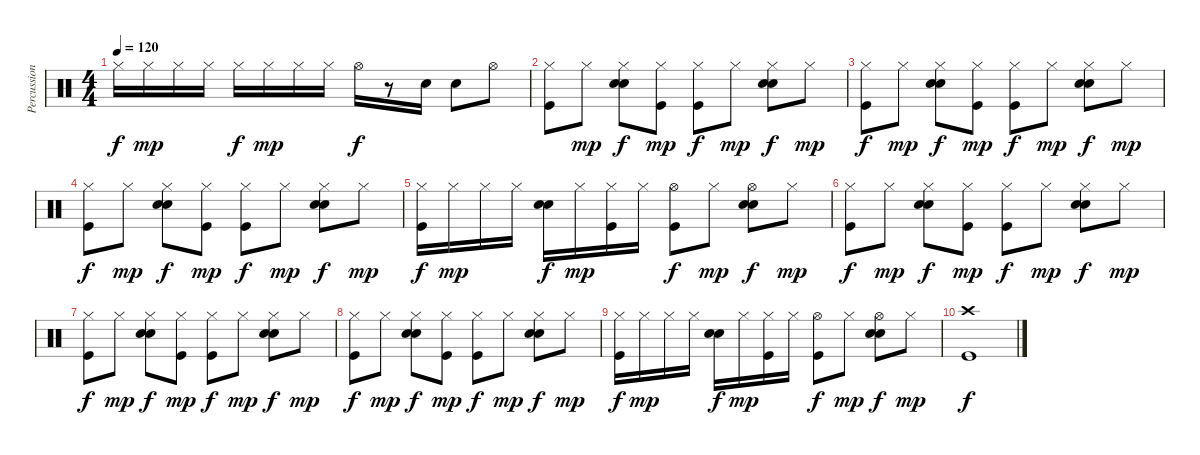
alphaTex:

\track ("Percussions" "Percussion") {instrument percussion}
\staff {score}
\articulation defaults
\ts (4 4)
\tempo 120
\clef neutral
\ks c "Hi-Hat (closed)".16{dy f} "Hi-Hat (closed)".16{dy mp} "Hi-Hat (closed)".16 "Hi-Hat (closed)".16 "Hi-Hat (closed)".16{dy f} "Hi-Hat (closed)".16{dy mp} "Hi-Hat (closed)".16 "Hi-Hat (closed)".16 "Hi-Hat (open)".16{dy f}
r.8 "Snare (hit) 2".16 "Snare (hit) 2".8 "Hi-Hat (open)".8 |
("Hi-Hat (closed)" "Kick (hit)").8 "Hi-Hat (closed)".8{dy mp} ("Hi-Hat (closed)" "Hand Clap (hit)" "Snare (hit) 2").8{dy f} ("Hi-Hat (closed)" "Kick (hit)").8{dy mp} ("Hi-Hat (closed)" "Kick (hit)").8{dy f} "Hi-Hat (closed)".8{dy mp} ("Hi-Hat (closed)" "Hand Clap (hit)" "Snare (hit) 2").8{dy f} "Hi-Hat (closed)".8{dy mp} |
("Hi-Hat (closed)" "Kick (hit)").8{dy f} "Hi-Hat (closed)".8{dy mp} ("Hi-Hat (closed)" "Hand Clap (hit)" "Snare (hit) 2").8{dy f} ("Hi-Hat (closed)" "Kick (hit)").8{dy mp} ("Hi-Hat (closed)" "Kick (hit)").8{dy f} "Hi-Hat (closed)".8{dy mp} ("Hi-Hat (closed)" "Hand Clap (hit)" "Snare (hit) 2").8{dy f} "Hi-Hat (closed)".8{dy mp} |
("Hi-Hat (closed)" "Kick (hit)").8{dy f} "Hi-Hat (closed)".8{dy mp} ("Hi-Hat (closed)" "Hand Clap (hit)" "Snare (hit) 2").8{dy f} ("Hi-Hat (closed)" "Kick (hit)").8{dy mp} ("Hi-Hat (closed)" "Kick (hit)").8{dy f} "Hi-Hat (closed)".8{dy mp} ("Hi-Hat (closed)" "Hand Clap (hit)" "Snare (hit) 2").8{dy f} "Hi-Hat (closed)".8{dy mp} |
("Hi-Hat (closed)" "Kick (hit)").16{dy f} "Hi-Hat (closed)".16{dy mp} "Hi-Hat (closed)".16 "Hi-Hat (closed)".16 ("Hand Clap (hit)" "Snare (hit) 2").16{dy f} "Hi-Hat (closed)".16{dy mp} ("Hi-Hat (closed)" "Kick (hit)").16 "Hi-Hat (closed)".16 ("Hi-Hat (open)" "Kick (hit)").8{dy f} "Hi-Hat (closed)".8{dy mp} ("Hi-Hat (open)" "Hand Clap (hit)" "Snare (hit) 2").8{dy f} "Hi-Hat (closed)".8{dy mp} |
("Hi-Hat (closed)" "Kick (hit)").8{dy f} "Hi-Hat (closed)".8{dy mp} ("Hi-Hat (closed)" "Hand Clap (hit)" "Snare (hit) 2").8{dy f} ("Hi-Hat (closed)" "Kick (hit)").8{dy mp} ("Hi-Hat (closed)" "Kick (hit)").8{dy f} "Hi-Hat (closed)".8{dy mp} ("Hi-Hat (closed)" "Hand Clap (hit)" "Snare (hit) 2").8{dy f} "Hi-Hat (closed)".8{dy mp} |
("Hi-Hat (closed)" "Kick (hit)").8{dy f} "Hi-Hat (closed)".8{dy mp} ("Hi-Hat (closed)" "Hand Clap (hit)" "Snare (hit) 2").8{dy f} ("Hi-Hat (closed)" "Kick (hit)").8{dy mp} ("Hi-Hat (closed)" "Kick (hit)").8{dy f} "Hi-Hat (closed)".8{dy mp} ("Hi-Hat (closed)" "Hand Clap (hit)" "Snare (hit) 2").8{dy f} "Hi-Hat (closed)".8{dy mp} |
("Hi-Hat (closed)" "Kick (hit)").8{dy f} "Hi-Hat (closed)".8{dy mp} ("Hi-Hat (closed)" "Hand Clap (hit)" "Snare (hit) 2").8{dy f} ("Hi-Hat (closed)" "Kick (hit)").8{dy mp} ("Hi-Hat (closed)" "Kick (hit)").8{dy f} "Hi-Hat (closed)".8{dy mp} ("Hi-Hat (closed)" "Hand Clap (hit)" "Snare (hit) 2").8{dy f} "Hi-Hat (closed)".8{dy mp} |
("Hi-Hat (closed)" "Kick (hit)").16{dy f} "Hi-Hat (closed)".16{dy mp} "Hi-Hat (closed)".16 "Hi-Hat (closed)".16 ("Hand Clap (hit)" "Snare (hit) 2").16{dy f} "Hi-Hat (closed)".16{dy mp} ("Hi-Hat (closed)" "Kick (hit)").16 "Hi-Hat (closed)".16 ("Hi-Hat (open)" "Kick (hit)").8{dy f} "Hi-Hat (closed)".8{dy mp} ("Hi-Hat (open)" "Hand Clap (hit)" "Snare (hit) 2").8{dy f} "Hi-Hat (closed)".8{dy mp} |
("Crash high (hit)" "Kick (hit)").1{dy f}
